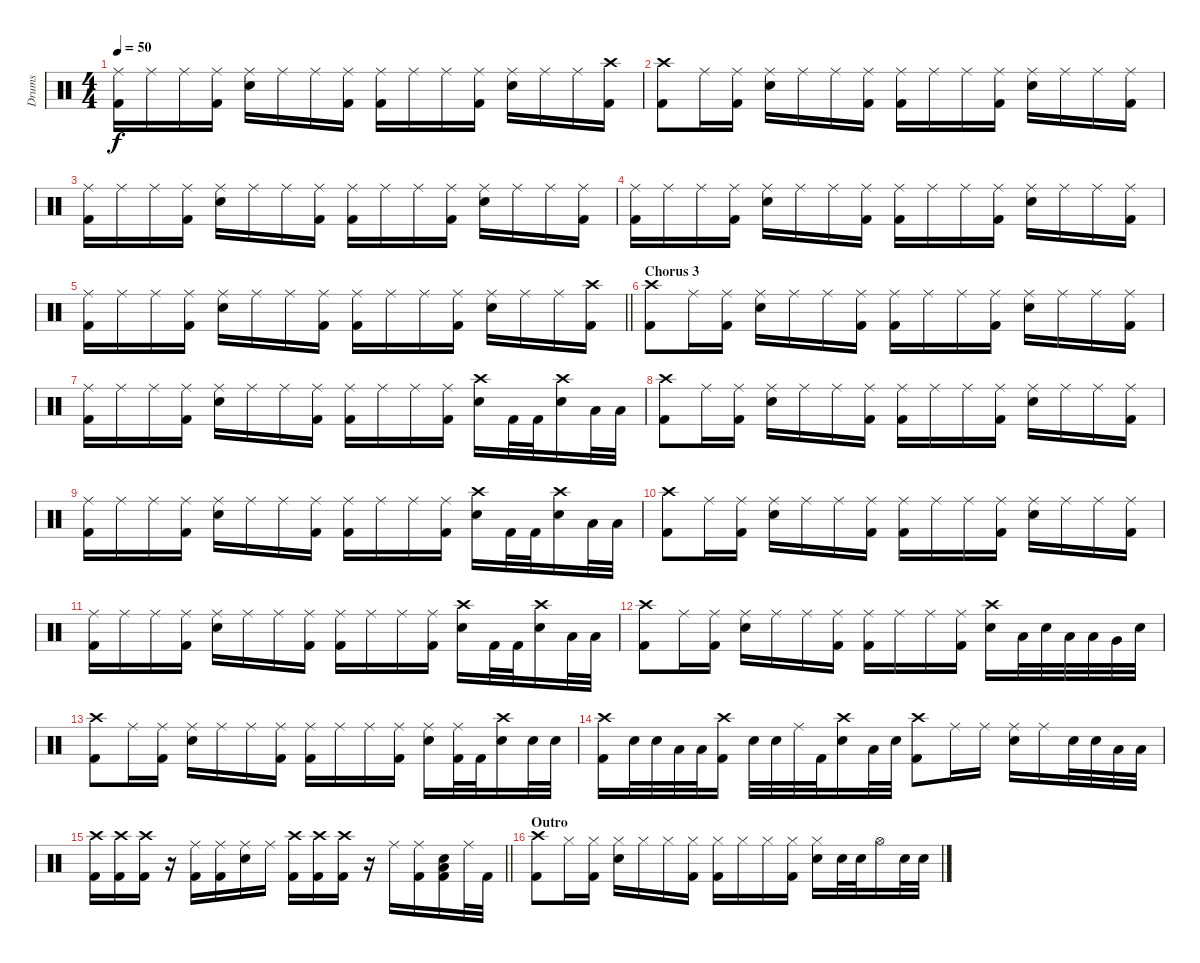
\track ("Drums" "Drums") {instrument percussion}
\staff {score}
\articulation defaults
\ts (4 4)
\tempo 50
\clef neutral
\ks c
("Ride (middle)" "Kick (hit) 2").16{dy f} "Ride (middle)".16 "Ride (middle)".16 ("Ride (middle)" "Kick (hit) 2").16 ("Ride (middle)" "Snare (hit) 2").16 "Ride (middle)".16 "Ride (middle)".16 ("Ride (middle)" "Kick (hit) 2").16 ("Ride (middle)" "Kick (hit) 2").16 "Ride (middle)".16 "Ride (middle)".16 ("Ride (middle)" "Kick (hit) 2").16 ("Ride (middle)" "Snare (hit) 2").16 "Ride (middle)".16 "Ride (middle)".16 ("Crash high (hit)" "Kick (hit) 2").16 |
("Crash high (hit)" "Kick (hit) 2").8 "Ride (middle)".16 ("Ride (middle)" "Kick (hit) 2").16 ("Ride (middle)" "Snare (hit) 2").16 "Ride (middle)".16 "Ride (middle)".16 ("Ride (middle)" "Kick (hit) 2").16 ("Ride (middle)" "Kick (hit) 2").16 "Ride (middle)".16 "Ride (middle)".16 ("Ride (middle)" "Kick (hit) 2").16 ("Ride (middle)" "Snare (hit) 2").16 "Ride (middle)".16 "Ride (middle)".16 ("Ride (middle)" "Kick (hit) 2").16 |
("Ride (middle)" "Kick (hit) 2").16 "Ride (middle)".16 "Ride (middle)".16 ("Ride (middle)" "Kick (hit) 2").16 ("Ride (middle)" "Snare (hit) 2").16 "Ride (middle)".16 "Ride (middle)".16 ("Ride (middle)" "Kick (hit) 2").16 ("Ride (middle)" "Kick (hit) 2").16 "Ride (middle)".16 "Ride (middle)".16 ("Ride (middle)" "Kick (hit) 2").16 ("Ride (middle)" "Snare (hit) 2").16 "Ride (middle)".16 "Ride (middle)".16 ("Ride (middle)" "Kick (hit) 2").16 |
("Ride (middle)" "Kick (hit) 2").16 "Ride (middle)".16 "Ride (middle)".16 ("Ride (middle)" "Kick (hit) 2").16 ("Ride (middle)" "Snare (hit) 2").16 "Ride (middle)".16 "Ride (middle)".16 ("Ride (middle)" "Kick (hit) 2").16 ("Ride (middle)" "Kick (hit) 2").16 "Ride (middle)".16 "Ride (middle)".16 ("Ride (middle)" "Kick (hit) 2").16 ("Ride (middle)" "Snare (hit) 2").16 "Ride (middle)".16 "Ride (middle)".16 ("Ride (middle)" "Kick (hit) 2").16 |
\barLineRight lightlight
("Ride (middle)" "Kick (hit) 2").16 "Ride (middle)".16 "Ride (middle)".16 ("Ride (middle)" "Kick (hit) 2").16 ("Ride (middle)" "Snare (hit) 2").16 "Ride (middle)".16 "Ride (middle)".16 ("Ride (middle)" "Kick (hit) 2").16 ("Ride (middle)" "Kick (hit) 2").16 "Ride (middle)".16 "Ride (middle)".16 ("Ride (middle)" "Kick (hit) 2").16 ("Ride (middle)" "Snare (hit) 2").16 "Ride (middle)".16 "Ride (middle)".16 ("Crash high (hit)" "Kick (hit) 2").16 |
\section ("" "Chorus 3")
("Crash high (hit)" "Kick (hit) 2").8 "Ride (middle)".16 ("Ride (middle)" "Kick (hit) 2").16 ("Ride (middle)" "Snare (hit) 2").16 "Ride (middle)".16 "Ride (middle)".16 ("Ride (middle)" "Kick (hit) 2").16 ("Ride (middle)" "Kick (hit) 2").16 "Ride (middle)".16 "Ride (middle)".16 ("Ride (middle)" "Kick (hit) 2").16 ("Ride (middle)" "Snare (hit) 2").16 "Ride (middle)".16 "Ride (middle)".16 ("Ride (middle)" "Kick (hit) 2").16 |
("Ride (middle)" "Kick (hit) 2").16 "Ride (middle)".16 "Ride (middle)".16 ("Ride (middle)" "Kick (hit) 2").16 ("Ride (middle)" "Snare (hit) 2").16 "Ride (middle)".16 "Ride (middle)".16 ("Ride (middle)" "Kick (hit) 2").16 ("Ride (middle)" "Kick (hit) 2").16 "Ride (middle)".16 "Ride (middle)".16 ("Ride (middle)" "Kick (hit) 2").16 ("Crash high (hit)" "Snare (hit) 2").16 "Kick (hit) 2".32 "Kick (hit) 2".32 ("Crash high (hit)" "Snare (hit) 2").16 "Low Tom (hit)".32 "Low Tom (hit)".32 |
("Crash high (hit)" "Kick (hit) 2").8 "Ride (middle)".16 ("Ride (middle)" "Kick (hit) 2").16 ("Ride (middle)" "Snare (hit) 2").16 "Ride (middle)".16 "Ride (middle)".16 ("Ride (middle)" "Kick (hit) 2").16 ("Ride (middle)" "Kick (hit) 2").16 "Ride (middle)".16 "Ride (middle)".16 ("Ride (middle)" "Kick (hit) 2").16 ("Ride (middle)" "Snare (hit) 2").16 "Ride (middle)".16 "Ride (middle)".16 ("Ride (middle)" "Kick (hit) 2").16 |
("Ride (middle)" "Kick (hit) 2").16 "Ride (middle)".16 "Ride (middle)".16 ("Ride (middle)" "Kick (hit) 2").16 ("Ride (middle)" "Snare (hit) 2").16 "Ride (middle)".16 "Ride (middle)".16 ("Ride (middle)" "Kick (hit) 2").16 ("Ride (middle)" "Kick (hit) 2").16 "Ride (middle)".16 "Ride (middle)".16 ("Ride (middle)" "Kick (hit) 2").16 ("Crash high (hit)" "Snare (hit) 2").16 "Kick (hit) 2".32 "Kick (hit) 2".32 ("Crash high (hit)" "Snare (hit) 2").16 "Low Tom (hit)".32 "Low Tom (hit)".32 |
("Crash high (hit)" "Kick (hit) 2").8 "Ride (middle)".16 ("Ride (middle)" "Kick (hit) 2").16 ("Ride (middle)" "Snare (hit) 2").16 "Ride (middle)".16 "Ride (middle)".16 ("Ride (middle)" "Kick (hit) 2").16 ("Ride (middle)" "Kick (hit) 2").16 "Ride (middle)".16 "Ride (middle)".16 ("Ride (middle)" "Kick (hit) 2").16 ("Ride (middle)" "Snare (hit) 2").16 "Ride (middle)".16 "Ride (middle)".16 ("Ride (middle)" "Kick (hit) 2").16 |
("Ride (middle)" "Kick (hit) 2").16 "Ride (middle)".16 "Ride (middle)".16 ("Ride (middle)" "Kick (hit) 2").16 ("Ride (middle)" "Snare (hit) 2").16 "Ride (middle)".16 "Ride (middle)".16 ("Ride (middle)" "Kick (hit) 2").16 ("Ride (middle)" "Kick (hit) 2").16 "Ride (middle)".16 "Ride (middle)".16 ("Ride (middle)" "Kick (hit) 2").16 ("Crash high (hit)" "Snare (hit) 2").16 "Kick (hit) 2".32 "Kick (hit) 2".32 ("Crash high (hit)" "Snare (hit) 2").16 "Low Tom (hit)".32 "Low Tom (hit)".32 |
("Crash high (hit)" "Kick (hit) 2").8 "Ride (middle)".16 ("Ride (middle)" "Kick (hit) 2").16 ("Ride (middle)" "Snare (hit) 2").16 "Ride (middle)".16 "Ride (middle)".16 ("Ride (middle)" "Kick (hit) 2").16 ("Ride (middle)" "Kick (hit) 2").16 "Ride (middle)".16 "Ride (middle)".16 ("Ride (middle)" "Kick (hit) 2").16 ("Crash high (hit)" "Snare (hit) 2").16 "Low Tom (hit)".32 "Snare (hit) 2".32 "Low Tom (hit)".32 "Low Tom (hit)".32 "Very Low Tom (hit)".32 "Snare (hit) 2".32 |
("Crash high (hit)" "Kick (hit) 2").8 "Ride (middle)".16 ("Ride (middle)" "Kick (hit) 2").16 ("Ride (middle)" "Snare (hit) 2").16 "Ride (middle)".16 "Ride (middle)".16 ("Ride (middle)" "Kick (hit) 2").16 ("Ride (middle)" "Kick (hit) 2").16 "Ride (middle)".16 "Ride (middle)".16 ("Ride (middle)" "Kick (hit) 2").16 ("Ride (middle)" "Snare (hit) 2").16 ("Ride (middle)" "Kick (hit) 2").32 "Kick (hit) 2".32 ("Crash high (hit)" "Snare (hit) 2").16 "Snare (hit) 2".32 "Snare (hit) 2".32 |
("Crash high (hit)" "Kick (hit) 2").16 "Snare (hit) 2".32 "Snare (hit) 2".32 "Low Tom (hit)".32 "Low Tom (hit)".32 ("Crash high (hit)" "Kick (hit) 2").16 "Snare (hit) 2".32 "Snare (hit) 2".32 "Ride (middle)".32 "Kick (hit) 2".32 ("Crash high (hit)" "Snare (hit) 2").16 "Low Tom (hit)".32 "Snare (hit) 2".32 ("Crash high (hit)" "Kick (hit) 2").8 "Ride (middle)".16 "Ride (middle)".16 ("Ride (middle)" "Snare (hit) 2").16 "Ride (middle)".16 "Snare (hit) 2".32 "Snare (hit) 2".32 "Low Tom (hit)".32 "Low Tom (hit)".32 |
\barLineRight lightlight
("Crash high (hit)" "Kick (hit) 2").16 ("Crash high (hit)" "Kick (hit) 2").16 ("Crash high (hit)" "Kick (hit) 2").16 r.16 ("Ride (middle)" "Kick (hit) 2").16 ("Ride (middle)" "Kick (hit) 2").16 ("Ride (middle)" "Snare (hit) 2").16 "Ride (middle)".16 ("Crash high (hit)" "Kick (hit) 2").16 ("Crash high (hit)" "Kick (hit) 2").16 ("Crash high (hit)" "Kick (hit) 2").16 r.16 "Ride (middle)".16 ("Ride (middle)" "Kick (hit) 2").16 ("Low Tom (hit)" "Snare (hit) 2" "Kick (hit) 2").16 "Ride (middle)".32 "Kick (hit) 2".32 |
\section ("" "Outro")
("Crash high (hit)" "Kick (hit) 2").8 "Hi-Hat (closed)".16 ("Hi-Hat (closed)" "Kick (hit) 2").16 ("Hi-Hat (closed)" "Snare (hit) 2").16 "Hi-Hat (closed)".16 "Hi-Hat (closed)".16 ("Hi-Hat (closed)" "Kick (hit) 2").16 ("Hi-Hat (closed)" "Kick (hit) 2").16 "Hi-Hat (closed)".16 "Hi-Hat (closed)".16 ("Hi-Hat (closed)" "Kick (hit) 2").16 ("Hi-Hat (closed)" "Snare (hit) 2").16 "Snare (hit) 2".32 "Snare (hit) 2".32 "Hi-Hat (open)".16 "Snare (hit) 2".32 "Snare (hit) 2".32
